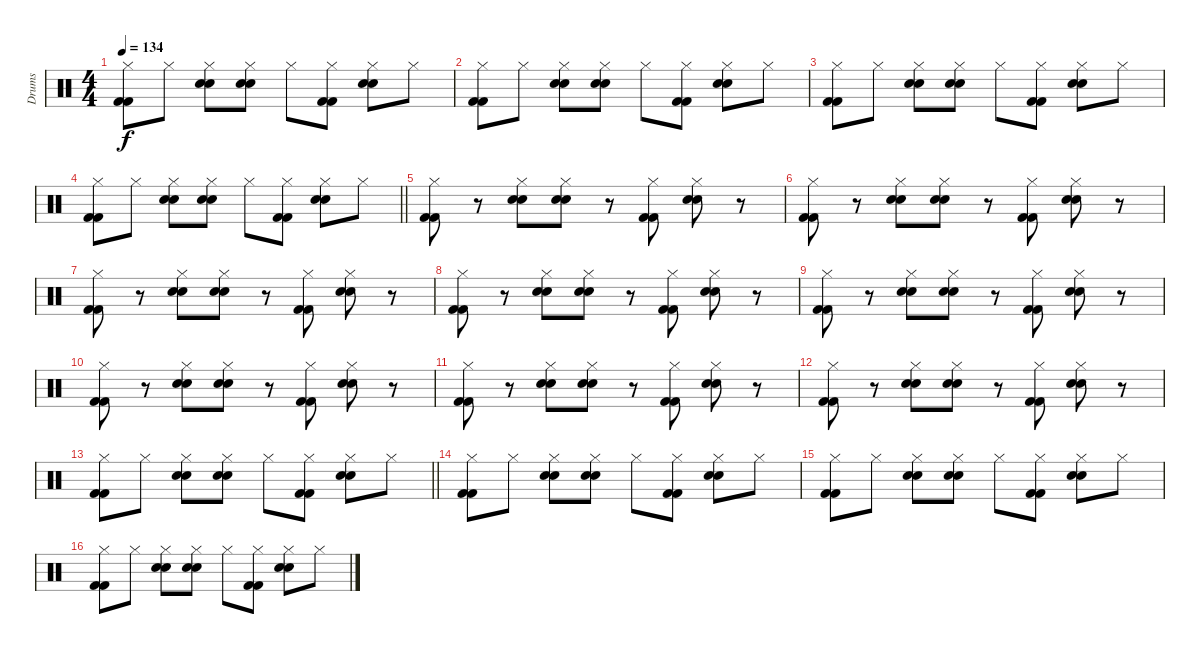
\track ("Drums" "Drums") {instrument percussion}
\staff {score}
\articulation defaults
\ts (4 4)
\tempo 134
\clef neutral
\ks c
("Kick (hit) 2" "Kick (hit) 2" "Hi-Hat (closed)").8{dy f} "Hi-Hat (closed)".8 ("Snare (hit) 2" "Hi-Hat (closed)" "Electric Snare (hit)").8 ("Snare (hit) 2" "Hi-Hat (closed)" "Electric Snare (hit)").8 "Hi-Hat (closed)".8 ("Kick (hit) 2" "Kick (hit) 2" "Hi-Hat (closed)").8 ("Snare (hit) 2" "Hi-Hat (closed)" "Electric Snare (hit)").8 "Hi-Hat (closed)".8 |
("Kick (hit) 2" "Kick (hit) 2" "Hi-Hat (closed)").8 "Hi-Hat (closed)".8 ("Snare (hit) 2" "Hi-Hat (closed)" "Electric Snare (hit)").8 ("Snare (hit) 2" "Hi-Hat (closed)" "Electric Snare (hit)").8 "Hi-Hat (closed)".8 ("Kick (hit) 2" "Kick (hit) 2" "Hi-Hat (closed)").8 ("Snare (hit) 2" "Hi-Hat (closed)" "Electric Snare (hit)").8 "Hi-Hat (closed)".8 |
("Kick (hit) 2" "Kick (hit) 2" "Hi-Hat (closed)").8 "Hi-Hat (closed)".8 ("Snare (hit) 2" "Hi-Hat (closed)" "Electric Snare (hit)").8 ("Snare (hit) 2" "Hi-Hat (closed)" "Electric Snare (hit)").8 "Hi-Hat (closed)".8 ("Kick (hit) 2" "Kick (hit) 2" "Hi-Hat (closed)").8 ("Snare (hit) 2" "Hi-Hat (closed)" "Electric Snare (hit)").8 "Hi-Hat (closed)".8 |
\barLineRight lightlight
("Kick (hit) 2" "Kick (hit) 2" "Hi-Hat (closed)").8 "Hi-Hat (closed)".8 ("Snare (hit) 2" "Hi-Hat (closed)" "Electric Snare (hit)").8 ("Snare (hit) 2" "Hi-Hat (closed)" "Electric Snare (hit)").8 "Hi-Hat (closed)".8 ("Kick (hit) 2" "Kick (hit) 2" "Hi-Hat (closed)").8 ("Snare (hit) 2" "Hi-Hat (closed)" "Electric Snare (hit)").8 "Hi-Hat (closed)".8 |
("Kick (hit) 2" "Kick (hit) 2" "Hi-Hat (closed)").8 r.8 ("Snare (hit) 2" "Hi-Hat (closed)" "Electric Snare (hit)").8 ("Snare (hit) 2" "Hi-Hat (closed)" "Electric Snare (hit)").8 r.8 ("Kick (hit) 2" "Kick (hit) 2" "Hi-Hat (closed)").8 ("Snare (hit) 2" "Hi-Hat (closed)" "Electric Snare (hit)").8 r.8 |
("Kick (hit) 2" "Kick (hit) 2" "Hi-Hat (closed)").8 r.8 ("Snare (hit) 2" "Hi-Hat (closed)" "Electric Snare (hit)").8 ("Snare (hit) 2" "Hi-Hat (closed)" "Electric Snare (hit)").8 r.8 ("Kick (hit) 2" "Kick (hit) 2" "Hi-Hat (closed)").8 ("Snare (hit) 2" "Hi-Hat (closed)" "Electric Snare (hit)").8 r.8 |
("Kick (hit) 2" "Kick (hit) 2" "Hi-Hat (closed)").8 r.8 ("Snare (hit) 2" "Hi-Hat (closed)" "Electric Snare (hit)").8 ("Snare (hit) 2" "Hi-Hat (closed)" "Electric Snare (hit)").8 r.8 ("Kick (hit) 2" "Kick (hit) 2" "Hi-Hat (closed)").8 ("Snare (hit) 2" "Hi-Hat (closed)" "Electric Snare (hit)").8 r.8 |
("Kick (hit) 2" "Kick (hit) 2" "Hi-Hat (closed)").8 r.8 ("Snare (hit) 2" "Hi-Hat (closed)" "Electric Snare (hit)").8 ("Snare (hit) 2" "Hi-Hat (closed)" "Electric Snare (hit)").8 r.8 ("Kick (hit) 2" "Kick (hit) 2" "Hi-Hat (closed)").8 ("Snare (hit) 2" "Hi-Hat (closed)" "Electric Snare (hit)").8 r.8 |
("Kick (hit) 2" "Kick (hit) 2" "Hi-Hat (closed)").8 r.8 ("Snare (hit) 2" "Hi-Hat (closed)" "Electric Snare (hit)").8 ("Snare (hit) 2" "Hi-Hat (closed)" "Electric Snare (hit)").8 r.8 ("Kick (hit) 2" "Kick (hit) 2" "Hi-Hat (closed)").8 ("Snare (hit) 2" "Hi-Hat (closed)" "Electric Snare (hit)").8 r.8 |
("Kick (hit) 2" "Kick (hit) 2" "Hi-Hat (closed)").8 r.8 ("Snare (hit) 2" "Hi-Hat (closed)" "Electric Snare (hit)").8 ("Snare (hit) 2" "Hi-Hat (closed)" "Electric Snare (hit)").8 r.8 ("Kick (hit) 2" "Kick (hit) 2" "Hi-Hat (closed)").8 ("Snare (hit) 2" "Hi-Hat (closed)" "Electric Snare (hit)").8 r.8 |
("Kick (hit) 2" "Kick (hit) 2" "Hi-Hat (closed)").8 r.8 ("Snare (hit) 2" "Hi-Hat (closed)" "Electric Snare (hit)").8 ("Snare (hit) 2" "Hi-Hat (closed)" "Electric Snare (hit)").8 r.8 ("Kick (hit) 2" "Kick (hit) 2" "Hi-Hat (closed)").8 ("Snare (hit) 2" "Hi-Hat (closed)" "Electric Snare (hit)").8 r.8 |
("Kick (hit) 2" "Kick (hit) 2" "Hi-Hat (closed)").8 r.8 ("Snare (hit) 2" "Hi-Hat (closed)" "Electric Snare (hit)").8 ("Snare (hit) 2" "Hi-Hat (closed)" "Electric Snare (hit)").8 r.8 ("Kick (hit) 2" "Kick (hit) 2" "Hi-Hat (closed)").8 ("Snare (hit) 2" "Hi-Hat (closed)" "Electric Snare (hit)").8 r.8 |
\barLineRight lightlight
("Kick (hit) 2" "Kick (hit) 2" "Hi-Hat (closed)").8 "Hi-Hat (closed)".8 ("Snare (hit) 2" "Hi-Hat (closed)" "Electric Snare (hit)").8 ("Snare (hit) 2" "Hi-Hat (closed)" "Electric Snare (hit)").8 "Hi-Hat (closed)".8 ("Kick (hit) 2" "Kick (hit) 2" "Hi-Hat (closed)").8 ("Snare (hit) 2" "Hi-Hat (closed)" "Electric Snare (hit)").8 "Hi-Hat (closed)".8 |
("Kick (hit) 2" "Kick (hit) 2" "Hi-Hat (closed)").8 "Hi-Hat (closed)".8 ("Snare (hit) 2" "Hi-Hat (closed)" "Electric Snare (hit)").8 ("Snare (hit) 2" "Hi-Hat (closed)" "Electric Snare (hit)").8 "Hi-Hat (closed)".8 ("Kick (hit) 2" "Kick (hit) 2" "Hi-Hat (closed)").8 ("Snare (hit) 2" "Hi-Hat (closed)" "Electric Snare (hit)").8 "Hi-Hat (closed)".8 |
("Kick (hit) 2" "Kick (hit) 2" "Hi-Hat (closed)").8 "Hi-Hat (closed)".8 ("Snare (hit) 2" "Hi-Hat (closed)" "Electric Snare (hit)").8 ("Snare (hit) 2" "Hi-Hat (closed)" "Electric Snare (hit)").8 "Hi-Hat (closed)".8 ("Kick (hit) 2" "Kick (hit) 2" "Hi-Hat (closed)").8 ("Snare (hit) 2" "Hi-Hat (closed)" "Electric Snare (hit)").8 "Hi-Hat (closed)".8 |
("Kick (hit) 2" "Kick (hit) 2" "Hi-Hat (closed)").8 "Hi-Hat (closed)".8 ("Snare (hit) 2" "Hi-Hat (closed)" "Electric Snare (hit)").8 ("Snare (hit) 2" "Hi-Hat (closed)" "Electric Snare (hit)").8 "Hi-Hat (closed)".8 ("Kick (hit) 2" "Kick (hit) 2" "Hi-Hat (closed)").8 ("Snare (hit) 2" "Hi-Hat (closed)" "Electric Snare (hit)").8 "Hi-Hat (closed)".8
